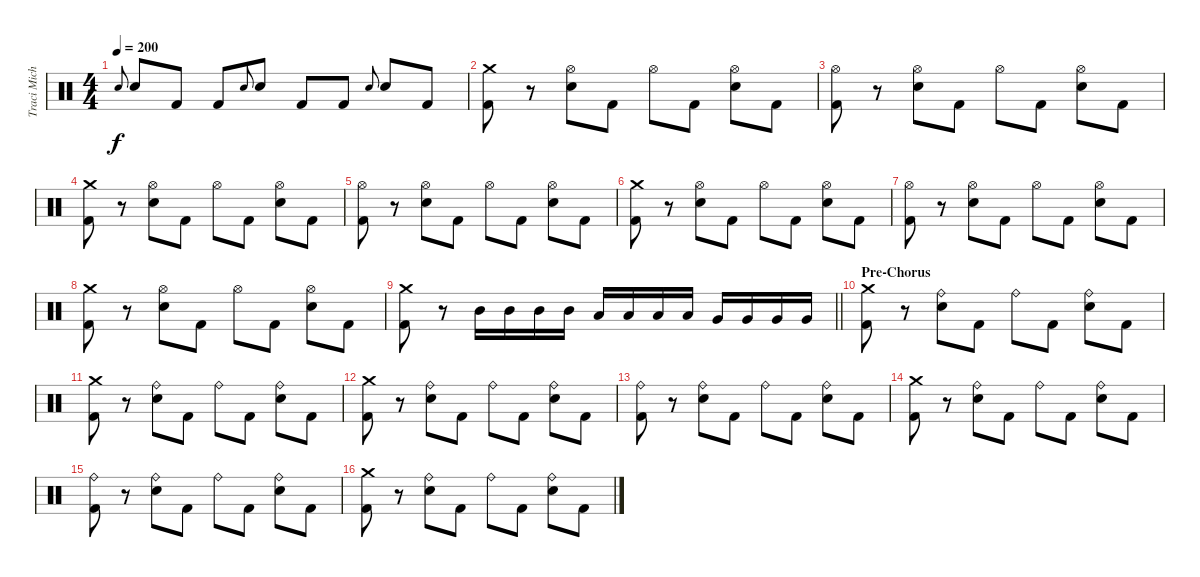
\track ("Traci Michaelz" "Traci Mich") {instrument percussion}
\staff {score}
\articulation defaults
\ts (4 4)
\tempo 200
\clef neutral
\ks c "Snare (hit) 2".8{gr onbeat dy f} "Snare (hit) 2".8 "Kick (hit) 2".8 "Kick (hit) 2".8 "Snare (hit) 2".8{gr onbeat} "Snare (hit) 2".8 "Kick (hit) 2".8 "Kick (hit) 2".8 "Snare (hit) 2".8{gr onbeat} "Snare (hit) 2".8 "Kick (hit) 2".8
|
("Crash medium (hit)" "Kick (hit) 2").8 r.8 ("Hi-Hat (open)" "Snare (hit) 2").8 "Kick (hit) 2".8 "Hi-Hat (open)".8 "Kick (hit) 2".8 ("Hi-Hat (open)" "Snare (hit) 2").8 "Kick (hit) 2".8 |
("Hi-Hat (open)" "Kick (hit) 2").8 r.8 ("Hi-Hat (open)" "Snare (hit) 2").8 "Kick (hit) 2".8 "Hi-Hat (open)".8 "Kick (hit) 2".8 ("Hi-Hat (open)" "Snare (hit) 2").8 "Kick (hit) 2".8 |
("Crash medium (hit)" "Kick (hit) 2").8 r.8 ("Hi-Hat (open)" "Snare (hit) 2").8 "Kick (hit) 2".8 "Hi-Hat (open)".8 "Kick (hit) 2".8 ("Hi-Hat (open)" "Snare (hit) 2").8 "Kick (hit) 2".8 |
("Hi-Hat (open)" "Kick (hit) 2").8 r.8 ("Hi-Hat (open)" "Snare (hit) 2").8 "Kick (hit) 2".8 "Hi-Hat (open)".8 "Kick (hit) 2".8 ("Hi-Hat (open)" "Snare (hit) 2").8 "Kick (hit) 2".8 |
("Crash medium (hit)" "Kick (hit) 2").8 r.8 ("Hi-Hat (open)" "Snare (hit) 2").8 "Kick (hit) 2".8 "Hi-Hat (open)".8 "Kick (hit) 2".8 ("Hi-Hat (open)" "Snare (hit) 2").8 "Kick (hit) 2".8 |
("Hi-Hat (open)" "Kick (hit) 2").8 r.8 ("Hi-Hat (open)" "Snare (hit) 2").8 "Kick (hit) 2".8 "Hi-Hat (open)".8 "Kick (hit) 2".8 ("Hi-Hat (open)" "Snare (hit) 2").8 "Kick (hit) 2".8 |
("Crash medium (hit)" "Kick (hit) 2").8 r.8 ("Hi-Hat (open)" "Snare (hit) 2").8 "Kick (hit) 2".8 "Hi-Hat (open)".8 "Kick (hit) 2".8 ("Hi-Hat (open)" "Snare (hit) 2").8 "Kick (hit) 2".8 |
\barLineRight lightlight
("Crash medium (hit)" "Kick (hit) 2").8 r.8 "Mid Tom (hit)".16 "Mid Tom (hit)".16 "Mid Tom (hit)".16 "Mid Tom (hit)".16 "Low Tom (hit)".16 "Low Tom (hit)".16 "Low Tom (hit)".16 "Low Tom (hit)".16 "Very Low Tom (hit)".16 "Very Low Tom (hit)".16 "Very Low Tom (hit)".16 "Very Low Tom (hit)".16 |
\section ("" "Pre-Chorus")
("Crash medium (hit)" "Kick (hit) 2").8 r.8 ("Ride (bell)" "Snare (hit) 2").8 "Kick (hit) 2".8 "Ride (bell)".8 "Kick (hit) 2".8 ("Ride (bell)" "Snare (hit) 2").8 "Kick (hit) 2".8 |
("Crash medium (hit)" "Kick (hit) 2").8 r.8 ("Ride (bell)" "Snare (hit) 2").8 "Kick (hit) 2".8 "Ride (bell)".8 "Kick (hit) 2".8 ("Ride (bell)" "Snare (hit) 2").8 "Kick (hit) 2".8 |
("Crash medium (hit)" "Kick (hit) 2").8 r.8 ("Ride (bell)" "Snare (hit) 2").8 "Kick (hit) 2".8 "Ride (bell)".8 "Kick (hit) 2".8 ("Ride (bell)" "Snare (hit) 2").8 "Kick (hit) 2".8 |
("Ride (bell)" "Kick (hit) 2").8 r.8 ("Ride (bell)" "Snare (hit) 2").8 "Kick (hit) 2".8 "Ride (bell)".8 "Kick (hit) 2".8 ("Ride (bell)" "Snare (hit) 2").8 "Kick (hit) 2".8 |
("Crash medium (hit)" "Kick (hit) 2").8 r.8 ("Ride (bell)" "Snare (hit) 2").8 "Kick (hit) 2".8 "Ride (bell)".8 "Kick (hit) 2".8 ("Ride (bell)" "Snare (hit) 2").8 "Kick (hit) 2".8 |
("Ride (bell)" "Kick (hit) 2").8 r.8 ("Ride (bell)" "Snare (hit) 2").8 "Kick (hit) 2".8 "Ride (bell)".8 "Kick (hit) 2".8 ("Ride (bell)" "Snare (hit) 2").8 "Kick (hit) 2".8 |
("Crash medium (hit)" "Kick (hit) 2").8 r.8 ("Ride (bell)" "Snare (hit) 2").8 "Kick (hit) 2".8 "Ride (bell)".8 "Kick (hit) 2".8 ("Ride (bell)" "Snare (hit) 2").8 "Kick (hit) 2".8
